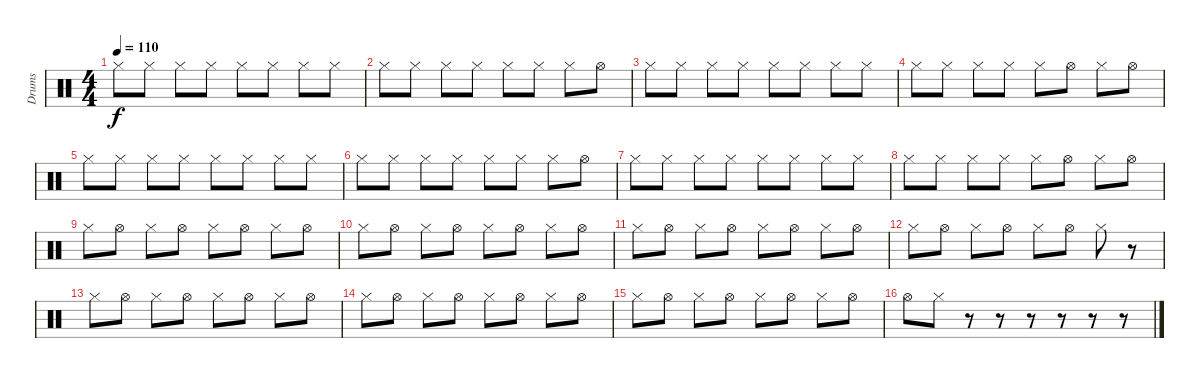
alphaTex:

\track ("Drums" "Drums") {instrument percussion}
\staff {score}
\articulation defaults
\ts (4 4)
\tempo 110
\clef neutral
\ks c "Hi-Hat (closed)".8{dy f} "Hi-Hat (closed)".8 "Hi-Hat (closed)".8 "Hi-Hat (closed)".8 "Hi-Hat (closed)".8 "Hi-Hat (closed)".8 "Hi-Hat (closed)".8 "Hi-Hat (closed)".8
|
"Hi-Hat (closed)".8 "Hi-Hat (closed)".8 "Hi-Hat (closed)".8 "Hi-Hat (closed)".8 "Hi-Hat (closed)".8 "Hi-Hat (closed)".8 "Hi-Hat (closed)".8 "Hi-Hat (open)".8 |
"Hi-Hat (closed)".8 "Hi-Hat (closed)".8 "Hi-Hat (closed)".8 "Hi-Hat (closed)".8 "Hi-Hat (closed)".8 "Hi-Hat (closed)".8 "Hi-Hat (closed)".8 "Hi-Hat (closed)".8 |
"Hi-Hat (closed)".8 "Hi-Hat (closed)".8 "Hi-Hat (closed)".8 "Hi-Hat (closed)".8 "Hi-Hat (closed)".8 "Hi-Hat (open)".8 "Hi-Hat (closed)".8 "Hi-Hat (open)".8 |
"Hi-Hat (closed)".8 "Hi-Hat (closed)".8 "Hi-Hat (closed)".8 "Hi-Hat (closed)".8 "Hi-Hat (closed)".8 "Hi-Hat (closed)".8 "Hi-Hat (closed)".8 "Hi-Hat (closed)".8 |
"Hi-Hat (closed)".8 "Hi-Hat (closed)".8 "Hi-Hat (closed)".8 "Hi-Hat (closed)".8 "Hi-Hat (closed)".8 "Hi-Hat (closed)".8 "Hi-Hat (closed)".8 "Hi-Hat (open)".8 |
"Hi-Hat (closed)".8 "Hi-Hat (closed)".8 "Hi-Hat (closed)".8 "Hi-Hat (closed)".8 "Hi-Hat (closed)".8 "Hi-Hat (closed)".8 "Hi-Hat (closed)".8 "Hi-Hat (closed)".8 |
"Hi-Hat (closed)".8 "Hi-Hat (closed)".8 "Hi-Hat (closed)".8 "Hi-Hat (closed)".8 "Hi-Hat (closed)".8 "Hi-Hat (open)".8 "Hi-Hat (closed)".8 "Hi-Hat (open)".8 |
"Hi-Hat (closed)".8 "Hi-Hat (open)".8 "Hi-Hat (closed)".8 "Hi-Hat (open)".8 "Hi-Hat (closed)".8 "Hi-Hat (open)".8 "Hi-Hat (closed)".8 "Hi-Hat (open)".8 |
"Hi-Hat (closed)".8 "Hi-Hat (open)".8 "Hi-Hat (closed)".8 "Hi-Hat (open)".8 "Hi-Hat (closed)".8 "Hi-Hat (open)".8 "Hi-Hat (closed)".8 "Hi-Hat (open)".8 |
"Hi-Hat (closed)".8 "Hi-Hat (open)".8 "Hi-Hat (closed)".8 "Hi-Hat (open)".8 "Hi-Hat (closed)".8 "Hi-Hat (open)".8 "Hi-Hat (closed)".8 "Hi-Hat (open)".8 |
"Hi-Hat (closed)".8 "Hi-Hat (open)".8 "Hi-Hat (closed)".8 "Hi-Hat (open)".8 "Hi-Hat (closed)".8 "Hi-Hat (open)".8 "Hi-Hat (closed)".8 r.8 |
"Hi-Hat (closed)".8 "Hi-Hat (open)".8 "Hi-Hat (closed)".8 "Hi-Hat (open)".8 "Hi-Hat (closed)".8 "Hi-Hat (open)".8 "Hi-Hat (closed)".8 "Hi-Hat (open)".8 |
"Hi-Hat (closed)".8 "Hi-Hat (open)".8 "Hi-Hat (closed)".8 "Hi-Hat (open)".8 "Hi-Hat (closed)".8 "Hi-Hat (open)".8 "Hi-Hat (closed)".8 "Hi-Hat (open)".8 |
"Hi-Hat (closed)".8 "Hi-Hat (open)".8 "Hi-Hat (closed)".8 "Hi-Hat (open)".8 "Hi-Hat (closed)".8 "Hi-Hat (open)".8 "Hi-Hat (closed)".8 "Hi-Hat (open)".8 |
"Hi-Hat (open)".8 "Hi-Hat (closed)".8 r.8 r.8 r.8 r.8 r.8 r.8
